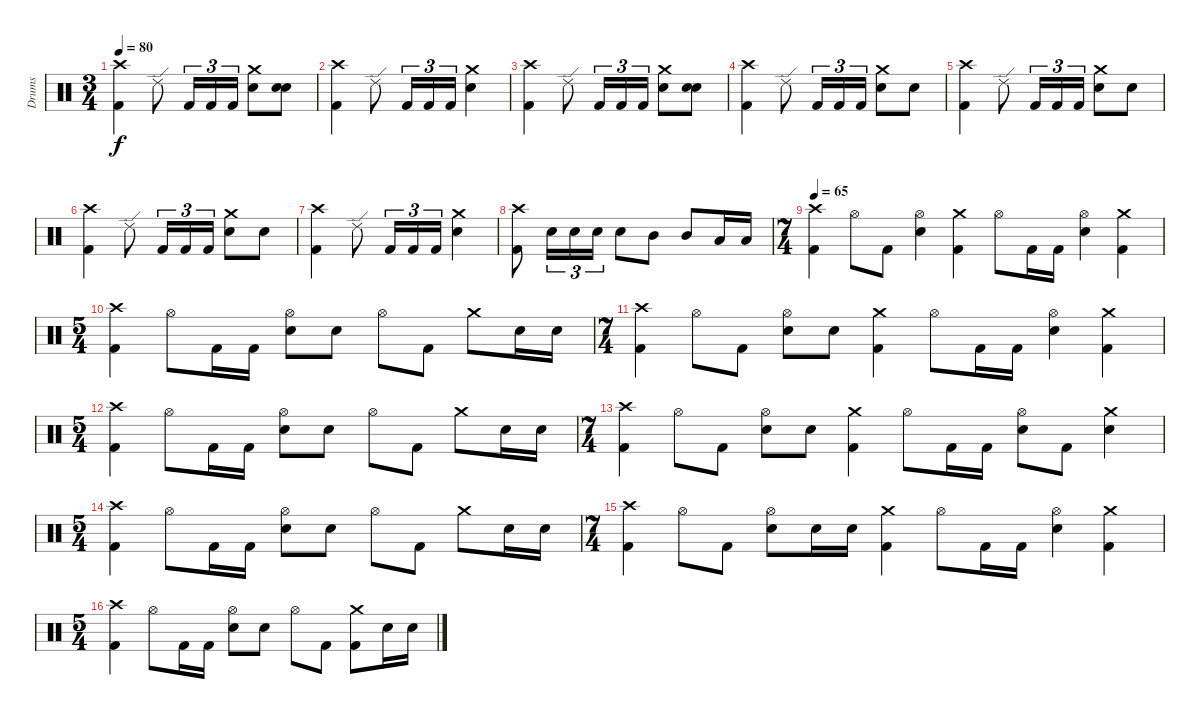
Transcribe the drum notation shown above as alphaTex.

\track ("Drums" "Drums") {instrument percussion}
\staff {score}
\articulation defaults
\ts (3 4)
\tempo 80
\clef neutral
\ks c
("Crash high (hit)" "Kick (hit) 2").4{dy f} "Ride (edge) 2".8 "Kick (hit) 2".16{tu (3 2)} "Kick (hit) 2".16{tu (3 2)} "Kick (hit) 2".16{tu (3 2)} ("Crash medium (hit)" "Electric Snare (hit)").8 ("Electric Snare (hit)" "Electric Snare (hit)").8 |
("Crash high (hit)" "Kick (hit) 2").4 "Ride (edge) 2".8 "Kick (hit) 2".16{tu (3 2)} "Kick (hit) 2".16{tu (3 2)} "Kick (hit) 2".16{tu (3 2)} ("Crash medium (hit)" "Electric Snare (hit)").4 |
("Crash high (hit)" "Kick (hit) 2").4 "Ride (edge) 2".8 "Kick (hit) 2".16{tu (3 2)} "Kick (hit) 2".16{tu (3 2)} "Kick (hit) 2".16{tu (3 2)} ("Crash medium (hit)" "Electric Snare (hit)").8 ("Electric Snare (hit)" "Electric Snare (hit)").8{bu 120} |
("Crash high (hit)" "Kick (hit) 2").4 "Ride (edge) 2".8 "Kick (hit) 2".16{tu (3 2)} "Kick (hit) 2".16{tu (3 2)} "Kick (hit) 2".16{tu (3 2)} ("Crash medium (hit)" "Electric Snare (hit)").8 "Electric Snare (hit)".8 |
("Crash high (hit)" "Kick (hit) 2").4 "Ride (edge) 2".8 "Kick (hit) 2".16{tu (3 2)} "Kick (hit) 2".16{tu (3 2)} "Kick (hit) 2".16{tu (3 2)} ("Crash medium (hit)" "Electric Snare (hit)").8 "Electric Snare (hit)".8 |
("Crash high (hit)" "Kick (hit) 2").4 "Ride (edge) 2".8 "Kick (hit) 2".16{tu (3 2)} "Kick (hit) 2".16{tu (3 2)} "Kick (hit) 2".16{tu (3 2)} ("Crash medium (hit)" "Electric Snare (hit)").8 "Electric Snare (hit)".8 |
("Crash high (hit)" "Kick (hit) 2").4 "Ride (edge) 2".8 "Kick (hit) 2".16{tu (3 2)} "Kick (hit) 2".16{tu (3 2)} "Kick (hit) 2".16{tu (3 2)} ("Crash medium (hit)" "Electric Snare (hit)").4 |
("Crash high (hit)" "Kick (hit) 2").8 "Electric Snare (hit)".16{tu (3 2)} "Electric Snare (hit)".16{tu (3 2)} "Electric Snare (hit)".16{tu (3 2)} "Electric Snare (hit)".8 "Mid Tom (hit)".8 "Mid Tom (hit)".8 "Low Tom (hit)".16 "Low Tom (hit)".16 |
\ts (7 4)
\tempo 65
("Crash high (hit)" "Kick (hit) 2").4 "Hi-Hat (open)".8 "Kick (hit) 2".8 ("Hi-Hat (open)" "Electric Snare (hit)").4 ("Crash medium (hit)" "Kick (hit) 2").4 "Hi-Hat (open)".8 "Kick (hit) 2".16 "Kick (hit) 2".16 ("Hi-Hat (open)" "Electric Snare (hit)").4 ("Crash medium (hit)" "Kick (hit) 2").4 |
\ts (5 4)
("Crash high (hit)" "Kick (hit) 2").4 "Hi-Hat (open)".8 "Kick (hit) 2".16 "Kick (hit) 2".16 ("Hi-Hat (open)" "Electric Snare (hit)").8 "Electric Snare (hit)".8 "Hi-Hat (open)".8 "Kick (hit) 2".8 "Crash medium (hit)".8 "Electric Snare (hit)".16 "Electric Snare (hit)".16 |
\ts (7 4)
("Crash high (hit)" "Kick (hit) 2").4 "Hi-Hat (open)".8 "Kick (hit) 2".8 ("Hi-Hat (open)" "Electric Snare (hit)").8 "Electric Snare (hit)".8 ("Crash medium (hit)" "Kick (hit) 2").4 "Hi-Hat (open)".8 "Kick (hit) 2".16 "Kick (hit) 2".16 ("Hi-Hat (open)" "Electric Snare (hit)").4 ("Crash medium (hit)" "Kick (hit) 2").4 |
\ts (5 4)
("Crash high (hit)" "Kick (hit) 2").4 "Hi-Hat (open)".8 "Kick (hit) 2".16 "Kick (hit) 2".16 ("Hi-Hat (open)" "Electric Snare (hit)").8 "Electric Snare (hit)".8 "Hi-Hat (open)".8 "Kick (hit) 2".8 "Crash medium (hit)".8 "Electric Snare (hit)".16 "Electric Snare (hit)".16 |
\ts (7 4)
("Crash high (hit)" "Kick (hit) 2").4 "Hi-Hat (open)".8 "Kick (hit) 2".8 ("Hi-Hat (open)" "Electric Snare (hit)").8 "Electric Snare (hit)".8 ("Crash medium (hit)" "Kick (hit) 2").4 "Hi-Hat (open)".8 "Kick (hit) 2".16 "Kick (hit) 2".16 ("Hi-Hat (open)" "Electric Snare (hit)").8 "Kick (hit) 2".8 ("Crash medium (hit)" "Electric Snare (hit)").4 |
\ts (5 4)
("Crash high (hit)" "Kick (hit) 2").4 "Hi-Hat (open)".8 "Kick (hit) 2".16 "Kick (hit) 2".16 ("Hi-Hat (open)" "Electric Snare (hit)").8 "Electric Snare (hit)".8 "Hi-Hat (open)".8 "Kick (hit) 2".8 "Crash medium (hit)".8 "Electric Snare (hit)".16 "Electric Snare (hit)".16 |
\ts (7 4)
("Crash high (hit)" "Kick (hit) 2").4 "Hi-Hat (open)".8 "Kick (hit) 2".8 ("Hi-Hat (open)" "Electric Snare (hit)").8 "Electric Snare (hit)".16 "Electric Snare (hit)".16 ("Crash medium (hit)" "Kick (hit) 2").4 "Hi-Hat (open)".8 "Kick (hit) 2".16 "Kick (hit) 2".16 ("Hi-Hat (open)" "Electric Snare (hit)").4 ("Crash medium (hit)" "Kick (hit) 2").4 |
\ts (5 4)
("Crash high (hit)" "Kick (hit) 2").4 "Hi-Hat (open)".8 "Kick (hit) 2".16 "Kick (hit) 2".16 ("Hi-Hat (open)" "Electric Snare (hit)").8 "Electric Snare (hit)".8 "Hi-Hat (open)".8 "Kick (hit) 2".8 ("Crash medium (hit)" "Kick (hit) 2").8 "Electric Snare (hit)".16 "Electric Snare (hit)".16
